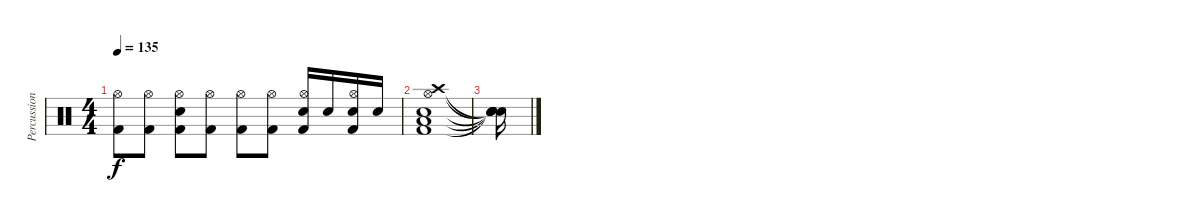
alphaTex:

\track ("Percussion" "Percussion") {instrument percussion}
\staff {score}
\articulation defaults
\ts (4 4)
\tempo 135
\clef neutral
\ks c
("Kick (hit) 2" "Hi-Hat (open)").8{dy f} ("Kick (hit) 2" "Hi-Hat (open)").8 ("Kick (hit) 2" "Electric Snare (hit)" "Hi-Hat (open)").8 ("Kick (hit) 2" "Hi-Hat (open)").8 ("Kick (hit) 2" "Hi-Hat (open)").8 ("Kick (hit) 2" "Hi-Hat (open)").8 ("Kick (hit) 2" "Electric Snare (hit)" "Hi-Hat (open)").16 "Electric Snare (hit)".16 ("Kick (hit) 2" "Electric Snare (hit)" "Hi-Hat (open)").16 "Electric Snare (hit)".16 |
("Crash high (hit)" "Kick (hit) 2" "Hi-Hat (open)" "Electric Snare (hit)" "Low Floor Tom (hit)").1 |
("Snare (hit)"{t} "Snare (hit)"{t} "Snare (hit)"{t} "Snare (hit)"{t} "Snare (hit)"{t}).16
